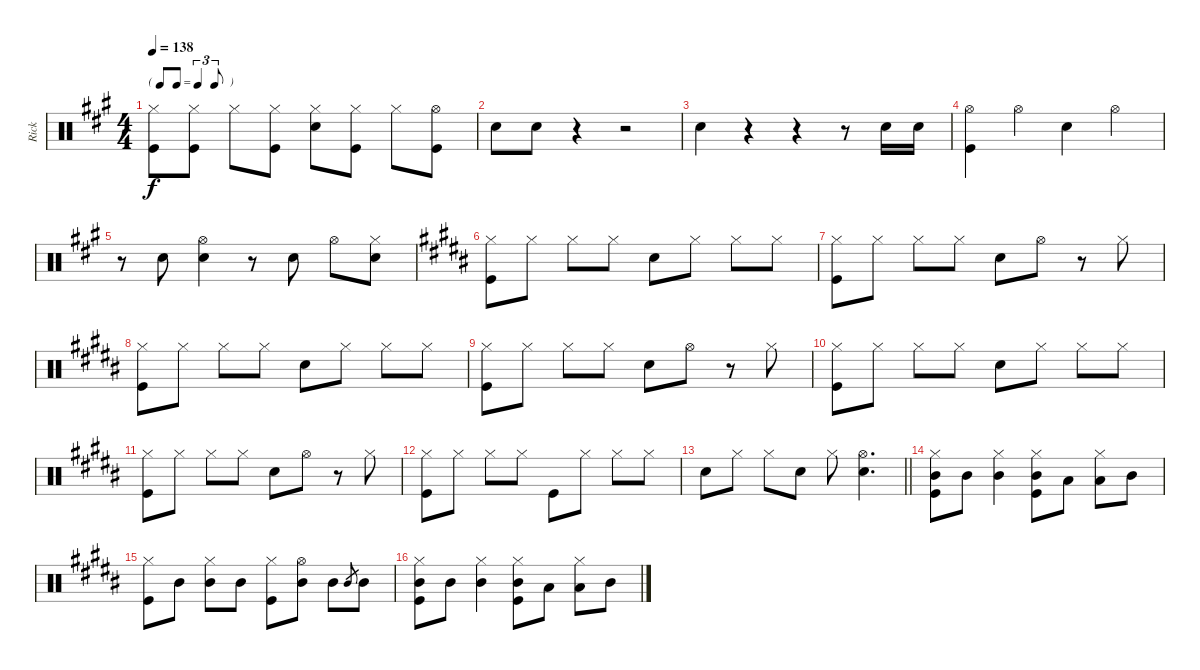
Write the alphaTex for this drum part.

\track ("Rick" "Rick") {instrument percussion}
\staff {score}
\articulation defaults
\ts (4 4)
\tf triplet8th
\tempo 138
\clef neutral
\ks a
("Hi-Hat (closed)" "Kick (hit)").8{dy f} ("Hi-Hat (closed)" "Kick (hit)").8 "Hi-Hat (closed)".8 ("Hi-Hat (closed)" "Kick (hit)").8 ("Hi-Hat (closed)" "Snare (hit) 2").8 ("Hi-Hat (closed)" "Kick (hit)").8 "Hi-Hat (closed)".8 ("Hi-Hat (open)" "Kick (hit)").8 |
"Snare (hit) 2".8 "Snare (hit) 2".8 r.4 r.2 |
"Snare (hit) 2".4 r.4 r.4 r.8 "Snare (hit) 2".16 "Snare (hit) 2".16 |
("Hi-Hat (open)" "Kick (hit)").4 "Hi-Hat (open)".4 "Snare (hit) 2".4 "Hi-Hat (open)".4 |
r.8 "Snare (hit) 2".8 ("Hi-Hat (open)" "Snare (hit) 2").4 r.8 "Snare (hit) 2".8 "Hi-Hat (open)".8 ("Hi-Hat (closed)" "Snare (hit) 2").8 |
\ks b
("Hi-Hat (closed)" "Kick (hit)").8 "Hi-Hat (closed)".8 "Hi-Hat (closed)".8 "Hi-Hat (closed)".8 "Snare (hit) 2".8 "Hi-Hat (closed)".8 "Hi-Hat (closed)".8 "Hi-Hat (closed)".8 |
("Hi-Hat (closed)" "Kick (hit)").8 "Hi-Hat (closed)".8 "Hi-Hat (closed)".8 "Hi-Hat (closed)".8 "Snare (hit) 2".8 "Hi-Hat (open)".8 r.8 "Hi-Hat (closed)".8 |
("Hi-Hat (closed)" "Kick (hit)").8 "Hi-Hat (closed)".8 "Hi-Hat (closed)".8 "Hi-Hat (closed)".8 "Snare (hit) 2".8 "Hi-Hat (closed)".8 "Hi-Hat (closed)".8 "Hi-Hat (closed)".8 |
("Hi-Hat (closed)" "Kick (hit)").8 "Hi-Hat (closed)".8 "Hi-Hat (closed)".8 "Hi-Hat (closed)".8 "Snare (hit) 2".8 "Hi-Hat (open)".8 r.8 "Hi-Hat (closed)".8 |
("Hi-Hat (closed)" "Kick (hit)").8 "Hi-Hat (closed)".8 "Hi-Hat (closed)".8 "Hi-Hat (closed)".8 "Snare (hit) 2".8 "Hi-Hat (closed)".8 "Hi-Hat (closed)".8 "Hi-Hat (closed)".8 |
("Hi-Hat (closed)" "Kick (hit)").8 "Hi-Hat (closed)".8 "Hi-Hat (closed)".8 "Hi-Hat (closed)".8 "Snare (hit) 2".8 "Hi-Hat (open)".8 r.8 "Hi-Hat (closed)".8 |
("Hi-Hat (closed)" "Kick (hit)").8 "Hi-Hat (closed)".8 "Hi-Hat (closed)".8 "Hi-Hat (closed)".8 "Kick (hit)".8 "Hi-Hat (closed)".8 "Hi-Hat (closed)".8 "Hi-Hat (closed)".8 |
\barLineRight lightlight "Snare (hit) 2".8 "Hi-Hat (closed)".8 "Hi-Hat (closed)".8 "Snare (hit) 2".8 "Hi-Hat (closed)".8
("Hi-Hat (open)" "Snare (hit) 2").4{d} |
("Hi-Hat (closed)" "Mid Tom (hit)" "Kick (hit)").8 "Mid Tom (hit)".8 ("Hi-Hat (closed)" "Mid Tom (hit)").4 ("Hi-Hat (closed)" "Mid Tom (hit)" "Kick (hit)").8 "Low Tom (hit)".8 ("Hi-Hat (closed)" "Low Tom (hit)").8 "Mid Tom (hit)".8 |
("Hi-Hat (closed)" "Kick (hit)").8 "Mid Tom (hit)".8 ("Hi-Hat (closed)" "Mid Tom (hit)").8 "Mid Tom (hit)".8 ("Hi-Hat (closed)" "Kick (hit)").8 ("Hi-Hat (open)" "Mid Tom (hit)").8 "Mid Tom (hit)".8 "Mid Tom (hit)".8{gr} "Mid Tom (hit)".8 |
("Hi-Hat (closed)" "Mid Tom (hit)" "Kick (hit)").8 "Mid Tom (hit)".8 ("Hi-Hat (closed)" "Mid Tom (hit)").4 ("Hi-Hat (closed)" "Mid Tom (hit)" "Kick (hit)").8 "Low Tom (hit)".8 ("Hi-Hat (closed)" "Low Tom (hit)").8 "Mid Tom (hit)".8
